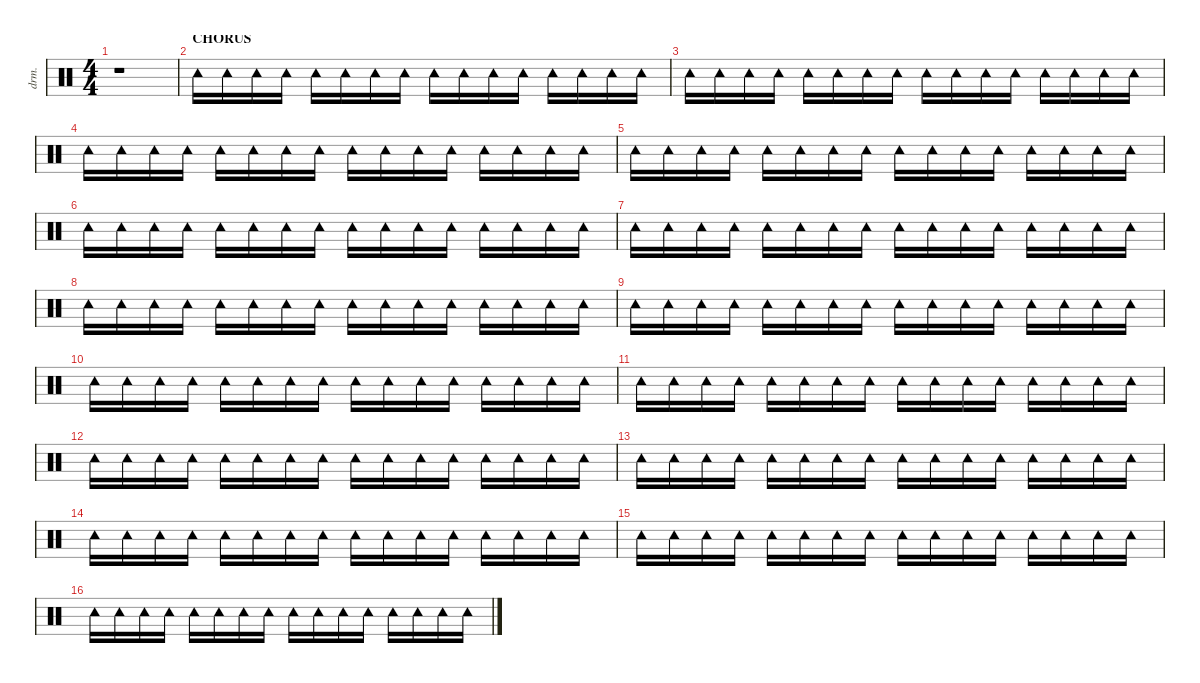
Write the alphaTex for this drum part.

\defaultSystemsLayout 4
\hideDynamics
\bracketExtendMode nobrackets
\otherSystemsTrackNameOrientation horizontal
\track ("Percussion" "drm.") {defaultSystemsLayout 8 solo instrument percussion}
\staff {score}
\articulation defaults
\ts (4 4)
\tempo (128 hide)
\clef neutral
\ks c
r.1{dy fff beam Down} |
\section ("" "CHORUS")
"Tambourine (hit)".16{dy f beam Down} "Tambourine (hit)".16{beam Down} "Tambourine (hit)".16{beam Down} "Tambourine (hit)".16{beam Down} "Tambourine (hit)".16{dy fff beam Down} "Tambourine (hit)".16{dy f beam Down} "Tambourine (hit)".16{beam Down} "Tambourine (hit)".16{beam Down} "Tambourine (hit)".16{beam Down} "Tambourine (hit)".16{beam Down} "Tambourine (hit)".16{beam Down} "Tambourine (hit)".16{beam Down} "Tambourine (hit)".16{dy fff beam Down} "Tambourine (hit)".16{dy f beam Down} "Tambourine (hit)".16{beam Down} "Tambourine (hit)".16{beam Down} |
"Tambourine (hit)".16{beam Down} "Tambourine (hit)".16{beam Down} "Tambourine (hit)".16{beam Down} "Tambourine (hit)".16{beam Down} "Tambourine (hit)".16{dy fff beam Down} "Tambourine (hit)".16{dy f beam Down} "Tambourine (hit)".16{beam Down} "Tambourine (hit)".16{beam Down} "Tambourine (hit)".16{beam Down} "Tambourine (hit)".16{beam Down} "Tambourine (hit)".16{beam Down} "Tambourine (hit)".16{beam Down} "Tambourine (hit)".16{dy fff beam Down} "Tambourine (hit)".16{dy f beam Down} "Tambourine (hit)".16{beam Down} "Tambourine (hit)".16{beam Down} |
"Tambourine (hit)".16{beam Down} "Tambourine (hit)".16{beam Down} "Tambourine (hit)".16{beam Down} "Tambourine (hit)".16{beam Down} "Tambourine (hit)".16{dy fff beam Down} "Tambourine (hit)".16{dy f beam Down} "Tambourine (hit)".16{beam Down} "Tambourine (hit)".16{beam Down} "Tambourine (hit)".16{beam Down} "Tambourine (hit)".16{beam Down} "Tambourine (hit)".16{beam Down} "Tambourine (hit)".16{beam Down} "Tambourine (hit)".16{dy fff beam Down} "Tambourine (hit)".16{dy f beam Down} "Tambourine (hit)".16{beam Down} "Tambourine (hit)".16{beam Down} |
"Tambourine (hit)".16{beam Down} "Tambourine (hit)".16{beam Down} "Tambourine (hit)".16{beam Down} "Tambourine (hit)".16{beam Down} "Tambourine (hit)".16{dy fff beam Down} "Tambourine (hit)".16{dy f beam Down} "Tambourine (hit)".16{beam Down} "Tambourine (hit)".16{beam Down} "Tambourine (hit)".16{beam Down} "Tambourine (hit)".16{beam Down} "Tambourine (hit)".16{beam Down} "Tambourine (hit)".16{beam Down} "Tambourine (hit)".16{dy fff beam Down} "Tambourine (hit)".16{dy f beam Down} "Tambourine (hit)".16{beam Down} "Tambourine (hit)".16{beam Down} |
"Tambourine (hit)".16{beam Down} "Tambourine (hit)".16{beam Down} "Tambourine (hit)".16{beam Down} "Tambourine (hit)".16{beam Down} "Tambourine (hit)".16{dy fff beam Down} "Tambourine (hit)".16{dy f beam Down} "Tambourine (hit)".16{beam Down} "Tambourine (hit)".16{beam Down} "Tambourine (hit)".16{beam Down} "Tambourine (hit)".16{beam Down} "Tambourine (hit)".16{beam Down} "Tambourine (hit)".16{beam Down} "Tambourine (hit)".16{dy fff beam Down} "Tambourine (hit)".16{dy f beam Down} "Tambourine (hit)".16{beam Down} "Tambourine (hit)".16{beam Down} |
"Tambourine (hit)".16{beam Down} "Tambourine (hit)".16{beam Down} "Tambourine (hit)".16{beam Down} "Tambourine (hit)".16{beam Down} "Tambourine (hit)".16{dy fff beam Down} "Tambourine (hit)".16{dy f beam Down} "Tambourine (hit)".16{beam Down} "Tambourine (hit)".16{beam Down} "Tambourine (hit)".16{beam Down} "Tambourine (hit)".16{beam Down} "Tambourine (hit)".16{beam Down} "Tambourine (hit)".16{beam Down} "Tambourine (hit)".16{dy fff beam Down} "Tambourine (hit)".16{dy f beam Down} "Tambourine (hit)".16{beam Down} "Tambourine (hit)".16{beam Down} |
"Tambourine (hit)".16{beam Down} "Tambourine (hit)".16{beam Down} "Tambourine (hit)".16{beam Down} "Tambourine (hit)".16{beam Down} "Tambourine (hit)".16{dy fff beam Down} "Tambourine (hit)".16{dy f beam Down} "Tambourine (hit)".16{beam Down} "Tambourine (hit)".16{beam Down} "Tambourine (hit)".16{beam Down} "Tambourine (hit)".16{beam Down} "Tambourine (hit)".16{beam Down} "Tambourine (hit)".16{beam Down} "Tambourine (hit)".16{dy fff beam Down} "Tambourine (hit)".16{dy f beam Down} "Tambourine (hit)".16{beam Down} "Tambourine (hit)".16{beam Down} |
"Tambourine (hit)".16{beam Down} "Tambourine (hit)".16{beam Down} "Tambourine (hit)".16{beam Down} "Tambourine (hit)".16{beam Down} "Tambourine (hit)".16{dy fff beam Down} "Tambourine (hit)".16{dy f beam Down} "Tambourine (hit)".16{beam Down} "Tambourine (hit)".16{beam Down} "Tambourine (hit)".16{beam Down} "Tambourine (hit)".16{beam Down} "Tambourine (hit)".16{beam Down} "Tambourine (hit)".16{beam Down} "Tambourine (hit)".16{dy fff beam Down} "Tambourine (hit)".16{dy f beam Down} "Tambourine (hit)".16{beam Down} "Tambourine (hit)".16{beam Down} |
"Tambourine (hit)".16{beam Down} "Tambourine (hit)".16{beam Down} "Tambourine (hit)".16{beam Down} "Tambourine (hit)".16{beam Down} "Tambourine (hit)".16{dy fff beam Down} "Tambourine (hit)".16{dy f beam Down} "Tambourine (hit)".16{beam Down} "Tambourine (hit)".16{beam Down} "Tambourine (hit)".16{beam Down} "Tambourine (hit)".16{beam Down} "Tambourine (hit)".16{beam Down} "Tambourine (hit)".16{beam Down} "Tambourine (hit)".16{dy fff beam Down} "Tambourine (hit)".16{dy f beam Down} "Tambourine (hit)".16{beam Down} "Tambourine (hit)".16{beam Down} |
"Tambourine (hit)".16{beam Down} "Tambourine (hit)".16{beam Down} "Tambourine (hit)".16{beam Down} "Tambourine (hit)".16{beam Down} "Tambourine (hit)".16{dy fff beam Down} "Tambourine (hit)".16{dy f beam Down} "Tambourine (hit)".16{beam Down} "Tambourine (hit)".16{beam Down} "Tambourine (hit)".16{beam Down} "Tambourine (hit)".16{beam Down} "Tambourine (hit)".16{beam Down} "Tambourine (hit)".16{beam Down} "Tambourine (hit)".16{dy fff beam Down} "Tambourine (hit)".16{dy f beam Down} "Tambourine (hit)".16{beam Down} "Tambourine (hit)".16{beam Down} |
"Tambourine (hit)".16{beam Down} "Tambourine (hit)".16{beam Down} "Tambourine (hit)".16{beam Down} "Tambourine (hit)".16{beam Down} "Tambourine (hit)".16{dy fff beam Down} "Tambourine (hit)".16{dy f beam Down} "Tambourine (hit)".16{beam Down} "Tambourine (hit)".16{beam Down} "Tambourine (hit)".16{beam Down} "Tambourine (hit)".16{beam Down} "Tambourine (hit)".16{beam Down} "Tambourine (hit)".16{beam Down} "Tambourine (hit)".16{dy fff beam Down} "Tambourine (hit)".16{dy f beam Down} "Tambourine (hit)".16{beam Down} "Tambourine (hit)".16{beam Down} |
"Tambourine (hit)".16{beam Down} "Tambourine (hit)".16{beam Down} "Tambourine (hit)".16{beam Down} "Tambourine (hit)".16{beam Down} "Tambourine (hit)".16{dy fff beam Down} "Tambourine (hit)".16{dy f beam Down} "Tambourine (hit)".16{beam Down} "Tambourine (hit)".16{beam Down} "Tambourine (hit)".16{beam Down} "Tambourine (hit)".16{beam Down} "Tambourine (hit)".16{beam Down} "Tambourine (hit)".16{beam Down} "Tambourine (hit)".16{dy fff beam Down} "Tambourine (hit)".16{dy f beam Down} "Tambourine (hit)".16{beam Down} "Tambourine (hit)".16{beam Down} |
"Tambourine (hit)".16{beam Down} "Tambourine (hit)".16{beam Down} "Tambourine (hit)".16{beam Down} "Tambourine (hit)".16{beam Down} "Tambourine (hit)".16{dy fff beam Down} "Tambourine (hit)".16{dy f beam Down} "Tambourine (hit)".16{beam Down} "Tambourine (hit)".16{beam Down} "Tambourine (hit)".16{beam Down} "Tambourine (hit)".16{beam Down} "Tambourine (hit)".16{beam Down} "Tambourine (hit)".16{beam Down} "Tambourine (hit)".16{dy fff beam Down} "Tambourine (hit)".16{dy f beam Down} "Tambourine (hit)".16{beam Down} "Tambourine (hit)".16{beam Down} |
"Tambourine (hit)".16{beam Down} "Tambourine (hit)".16{beam Down} "Tambourine (hit)".16{beam Down} "Tambourine (hit)".16{beam Down} "Tambourine (hit)".16{dy fff beam Down} "Tambourine (hit)".16{dy f beam Down} "Tambourine (hit)".16{beam Down} "Tambourine (hit)".16{beam Down} "Tambourine (hit)".16{beam Down} "Tambourine (hit)".16{beam Down} "Tambourine (hit)".16{beam Down} "Tambourine (hit)".16{beam Down} "Tambourine (hit)".16{dy fff beam Down} "Tambourine (hit)".16{dy f beam Down} "Tambourine (hit)".16{beam Down} "Tambourine (hit)".16{beam Down} |
"Tambourine (hit)".16{beam Down} "Tambourine (hit)".16{beam Down} "Tambourine (hit)".16{beam Down} "Tambourine (hit)".16{beam Down} "Tambourine (hit)".16{dy fff beam Down} "Tambourine (hit)".16{dy f beam Down} "Tambourine (hit)".16{beam Down} "Tambourine (hit)".16{beam Down} "Tambourine (hit)".16{beam Down} "Tambourine (hit)".16{beam Down} "Tambourine (hit)".16{beam Down} "Tambourine (hit)".16{beam Down} "Tambourine (hit)".16{dy fff beam Down} "Tambourine (hit)".16{dy f beam Down} "Tambourine (hit)".16{beam Down} "Tambourine (hit)".16{beam Down}
